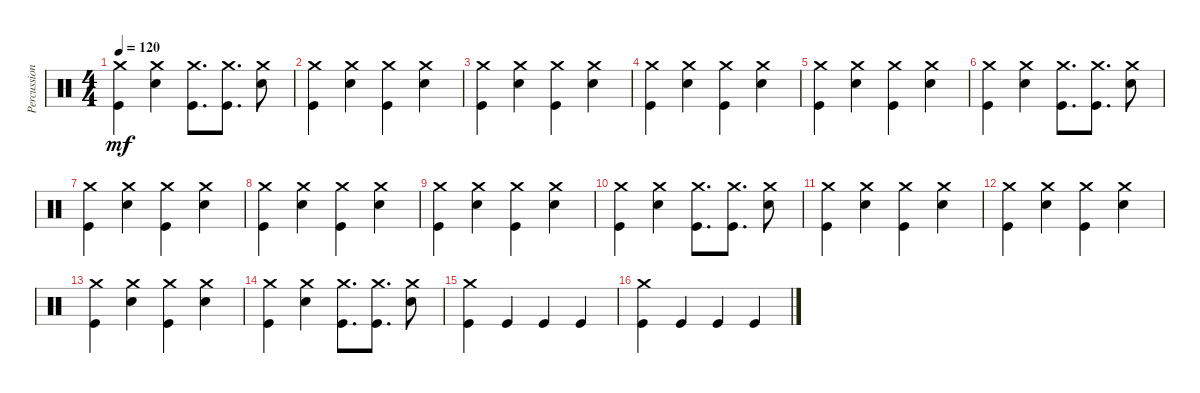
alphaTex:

\track ("Percussion" "Percussion") {instrument percussion}
\staff {score}
\articulation defaults
\ts (4 4)
\tempo 120
\clef neutral
\ks c
("Crash medium (hit)" "Kick (hit)").4{dy mf} ("Crash medium (hit)" "Snare (hit) 2").4 ("Crash medium (hit)" "Kick (hit)").8{d} ("Crash medium (hit)" "Kick (hit)").8{d} ("Crash medium (hit)" "Snare (hit) 2").8 |
("Crash medium (hit)" "Kick (hit)").4 ("Crash medium (hit)" "Snare (hit) 2").4 ("Crash medium (hit)" "Kick (hit)").4 ("Crash medium (hit)" "Snare (hit) 2").4 |
("Crash medium (hit)" "Kick (hit)").4 ("Crash medium (hit)" "Snare (hit) 2").4 ("Crash medium (hit)" "Kick (hit)").4 ("Crash medium (hit)" "Snare (hit) 2").4 |
("Crash medium (hit)" "Kick (hit)").4 ("Crash medium (hit)" "Snare (hit) 2").4 ("Crash medium (hit)" "Kick (hit)").4 ("Crash medium (hit)" "Snare (hit) 2").4 |
("Crash medium (hit)" "Kick (hit)").4 ("Crash medium (hit)" "Snare (hit) 2").4 ("Crash medium (hit)" "Kick (hit)").4 ("Crash medium (hit)" "Snare (hit) 2").4 |
("Crash medium (hit)" "Kick (hit)").4 ("Crash medium (hit)" "Snare (hit) 2").4 ("Crash medium (hit)" "Kick (hit)").8{d} ("Crash medium (hit)" "Kick (hit)").8{d} ("Snare (hit) 2" "Crash medium (hit)").8 |
("Crash medium (hit)" "Kick (hit)").4 ("Crash medium (hit)" "Snare (hit) 2").4 ("Crash medium (hit)" "Kick (hit)").4 ("Crash medium (hit)" "Snare (hit) 2").4 |
("Crash medium (hit)" "Kick (hit)").4 ("Crash medium (hit)" "Snare (hit) 2").4 ("Crash medium (hit)" "Kick (hit)").4 ("Crash medium (hit)" "Snare (hit) 2").4 |
("Crash medium (hit)" "Kick (hit)").4 ("Crash medium (hit)" "Snare (hit) 2").4 ("Crash medium (hit)" "Kick (hit)").4 ("Crash medium (hit)" "Snare (hit) 2").4 |
("Crash medium (hit)" "Kick (hit)").4 ("Crash medium (hit)" "Snare (hit) 2").4 ("Crash medium (hit)" "Kick (hit)").8{d} ("Crash medium (hit)" "Kick (hit)").8{d} ("Snare (hit) 2" "Crash medium (hit)").8 |
("Crash medium (hit)" "Kick (hit)").4 ("Crash medium (hit)" "Snare (hit) 2").4 ("Crash medium (hit)" "Kick (hit)").4 ("Crash medium (hit)" "Snare (hit) 2").4 |
("Crash medium (hit)" "Kick (hit)").4 ("Crash medium (hit)" "Snare (hit) 2").4 ("Crash medium (hit)" "Kick (hit)").4 ("Crash medium (hit)" "Snare (hit) 2").4 |
("Crash medium (hit)" "Kick (hit)").4 ("Crash medium (hit)" "Snare (hit) 2").4 ("Crash medium (hit)" "Kick (hit)").4 ("Crash medium (hit)" "Snare (hit) 2").4 |
("Crash medium (hit)" "Kick (hit)").4 ("Crash medium (hit)" "Snare (hit) 2").4 ("Crash medium (hit)" "Kick (hit)").8{d} ("Crash medium (hit)" "Kick (hit)").8{d} ("Snare (hit) 2" "Crash medium (hit)").8 |
("Crash medium (hit)" "Kick (hit)").4 "Kick (hit)".4 "Kick (hit)".4 "Kick (hit)".4 |
("Crash medium (hit)" "Kick (hit)").4 "Kick (hit)".4 "Kick (hit)".4 "Kick (hit)".4
